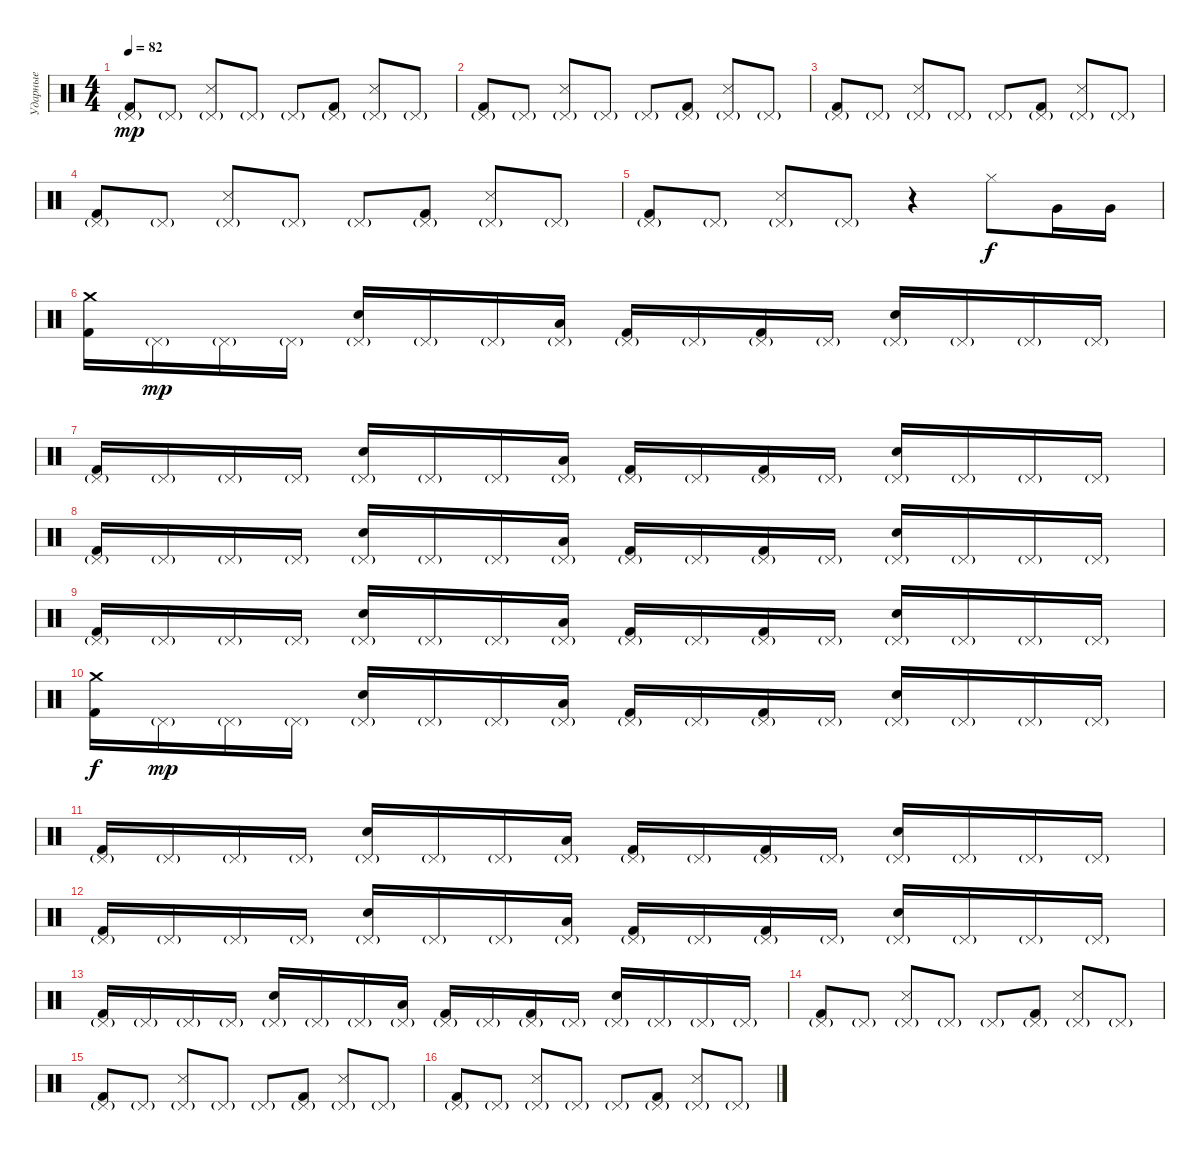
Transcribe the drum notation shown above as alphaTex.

\track ("Ударные" "Ударные") {instrument percussion}
\staff {score}
\articulation defaults
\ts (4 4)
\tempo 82
\clef neutral
\ks c
("Pedal Hi-Hat (hit)"{g} "Kick (hit) 2").8{dy mp} "Pedal Hi-Hat (hit)"{g}.8 ("Pedal Hi-Hat (hit)"{g} "Snare (side stick) 3").8 "Pedal Hi-Hat (hit)"{g}.8 "Pedal Hi-Hat (hit)"{g}.8 ("Pedal Hi-Hat (hit)"{g} "Kick (hit) 2").8 ("Pedal Hi-Hat (hit)"{g} "Snare (side stick) 3").8 "Pedal Hi-Hat (hit)"{g}.8 |
("Pedal Hi-Hat (hit)"{g} "Kick (hit) 2").8 "Pedal Hi-Hat (hit)"{g}.8 ("Pedal Hi-Hat (hit)"{g} "Snare (side stick) 3").8 "Pedal Hi-Hat (hit)"{g}.8 "Pedal Hi-Hat (hit)"{g}.8 ("Pedal Hi-Hat (hit)"{g} "Kick (hit) 2").8 ("Pedal Hi-Hat (hit)"{g} "Snare (side stick) 3").8 "Pedal Hi-Hat (hit)"{g}.8 |
("Pedal Hi-Hat (hit)"{g} "Kick (hit) 2").8 "Pedal Hi-Hat (hit)"{g}.8 ("Pedal Hi-Hat (hit)"{g} "Snare (side stick) 3").8 "Pedal Hi-Hat (hit)"{g}.8 "Pedal Hi-Hat (hit)"{g}.8 ("Pedal Hi-Hat (hit)"{g} "Kick (hit) 2").8 ("Pedal Hi-Hat (hit)"{g} "Snare (side stick) 3").8 "Pedal Hi-Hat (hit)"{g}.8 |
("Pedal Hi-Hat (hit)"{g} "Kick (hit) 2").8 "Pedal Hi-Hat (hit)"{g}.8 ("Pedal Hi-Hat (hit)"{g} "Snare (side stick) 3").8 "Pedal Hi-Hat (hit)"{g}.8 "Pedal Hi-Hat (hit)"{g}.8 ("Pedal Hi-Hat (hit)"{g} "Kick (hit) 2").8 ("Pedal Hi-Hat (hit)"{g} "Snare (side stick) 3").8 "Pedal Hi-Hat (hit)"{g}.8 |
("Pedal Hi-Hat (hit)"{g} "Kick (hit) 2").8 "Pedal Hi-Hat (hit)"{g}.8 ("Pedal Hi-Hat (hit)"{g} "Snare (side stick) 3").8 "Pedal Hi-Hat (hit)"{g}.8 r.4 "Hi-Hat (closed)".8{dy f} "Very Low Tom (hit)".16 "Very Low Tom (hit)".16 |
("Crash medium (hit)" "Kick (hit) 2").16 "Pedal Hi-Hat (hit)"{g}.16{dy mp} "Pedal Hi-Hat (hit)"{g}.16 "Pedal Hi-Hat (hit)"{g}.16 ("Pedal Hi-Hat (hit)"{g} "Electric Snare (hit)").16 "Pedal Hi-Hat (hit)"{g}.16 "Pedal Hi-Hat (hit)"{g}.16 ("Pedal Hi-Hat (hit)"{g} "Low Floor Tom (hit)").16 ("Pedal Hi-Hat (hit)"{g} "Kick (hit) 2").16 "Pedal Hi-Hat (hit)"{g}.16 ("Pedal Hi-Hat (hit)"{g} "Kick (hit) 2").16 "Pedal Hi-Hat (hit)"{g}.16 ("Pedal Hi-Hat (hit)"{g} "Electric Snare (hit)").16 "Pedal Hi-Hat (hit)"{g}.16 "Pedal Hi-Hat (hit)"{g}.16 "Pedal Hi-Hat (hit)"{g}.16 |
("Pedal Hi-Hat (hit)"{g} "Kick (hit) 2").16 "Pedal Hi-Hat (hit)"{g}.16 "Pedal Hi-Hat (hit)"{g}.16 "Pedal Hi-Hat (hit)"{g}.16 ("Pedal Hi-Hat (hit)"{g} "Electric Snare (hit)").16 "Pedal Hi-Hat (hit)"{g}.16 "Pedal Hi-Hat (hit)"{g}.16 ("Pedal Hi-Hat (hit)"{g} "Low Floor Tom (hit)").16 ("Pedal Hi-Hat (hit)"{g} "Kick (hit) 2").16 "Pedal Hi-Hat (hit)"{g}.16 ("Pedal Hi-Hat (hit)"{g} "Kick (hit) 2").16 "Pedal Hi-Hat (hit)"{g}.16 ("Pedal Hi-Hat (hit)"{g} "Electric Snare (hit)").16 "Pedal Hi-Hat (hit)"{g}.16 "Pedal Hi-Hat (hit)"{g}.16 "Pedal Hi-Hat (hit)"{g}.16 |
("Pedal Hi-Hat (hit)"{g} "Kick (hit) 2").16 "Pedal Hi-Hat (hit)"{g}.16 "Pedal Hi-Hat (hit)"{g}.16 "Pedal Hi-Hat (hit)"{g}.16 ("Pedal Hi-Hat (hit)"{g} "Electric Snare (hit)").16 "Pedal Hi-Hat (hit)"{g}.16 "Pedal Hi-Hat (hit)"{g}.16 ("Pedal Hi-Hat (hit)"{g} "Low Floor Tom (hit)").16 ("Pedal Hi-Hat (hit)"{g} "Kick (hit) 2").16 "Pedal Hi-Hat (hit)"{g}.16 ("Pedal Hi-Hat (hit)"{g} "Kick (hit) 2").16 "Pedal Hi-Hat (hit)"{g}.16 ("Pedal Hi-Hat (hit)"{g} "Electric Snare (hit)").16 "Pedal Hi-Hat (hit)"{g}.16 "Pedal Hi-Hat (hit)"{g}.16 "Pedal Hi-Hat (hit)"{g}.16 |
("Pedal Hi-Hat (hit)"{g} "Kick (hit) 2").16 "Pedal Hi-Hat (hit)"{g}.16 "Pedal Hi-Hat (hit)"{g}.16 "Pedal Hi-Hat (hit)"{g}.16 ("Pedal Hi-Hat (hit)"{g} "Electric Snare (hit)").16 "Pedal Hi-Hat (hit)"{g}.16 "Pedal Hi-Hat (hit)"{g}.16 ("Pedal Hi-Hat (hit)"{g} "Low Floor Tom (hit)").16 ("Pedal Hi-Hat (hit)"{g} "Kick (hit) 2").16 "Pedal Hi-Hat (hit)"{g}.16 ("Pedal Hi-Hat (hit)"{g} "Kick (hit) 2").16 "Pedal Hi-Hat (hit)"{g}.16 ("Pedal Hi-Hat (hit)"{g} "Electric Snare (hit)").16 "Pedal Hi-Hat (hit)"{g}.16 "Pedal Hi-Hat (hit)"{g}.16 "Pedal Hi-Hat (hit)"{g}.16 |
("Crash medium (hit)" "Kick (hit) 2").16{dy f} "Pedal Hi-Hat (hit)"{g}.16{dy mp} "Pedal Hi-Hat (hit)"{g}.16 "Pedal Hi-Hat (hit)"{g}.16 ("Pedal Hi-Hat (hit)"{g} "Electric Snare (hit)").16 "Pedal Hi-Hat (hit)"{g}.16 "Pedal Hi-Hat (hit)"{g}.16 ("Pedal Hi-Hat (hit)"{g} "Low Floor Tom (hit)").16 ("Pedal Hi-Hat (hit)"{g} "Kick (hit) 2").16 "Pedal Hi-Hat (hit)"{g}.16 ("Pedal Hi-Hat (hit)"{g} "Kick (hit) 2").16 "Pedal Hi-Hat (hit)"{g}.16 ("Pedal Hi-Hat (hit)"{g} "Electric Snare (hit)").16 "Pedal Hi-Hat (hit)"{g}.16 "Pedal Hi-Hat (hit)"{g}.16 "Pedal Hi-Hat (hit)"{g}.16 |
("Pedal Hi-Hat (hit)"{g} "Kick (hit) 2").16 "Pedal Hi-Hat (hit)"{g}.16 "Pedal Hi-Hat (hit)"{g}.16 "Pedal Hi-Hat (hit)"{g}.16 ("Pedal Hi-Hat (hit)"{g} "Electric Snare (hit)").16 "Pedal Hi-Hat (hit)"{g}.16 "Pedal Hi-Hat (hit)"{g}.16 ("Pedal Hi-Hat (hit)"{g} "Low Floor Tom (hit)").16 ("Pedal Hi-Hat (hit)"{g} "Kick (hit) 2").16 "Pedal Hi-Hat (hit)"{g}.16 ("Pedal Hi-Hat (hit)"{g} "Kick (hit) 2").16 "Pedal Hi-Hat (hit)"{g}.16 ("Pedal Hi-Hat (hit)"{g} "Electric Snare (hit)").16 "Pedal Hi-Hat (hit)"{g}.16 "Pedal Hi-Hat (hit)"{g}.16 "Pedal Hi-Hat (hit)"{g}.16 |
("Pedal Hi-Hat (hit)"{g} "Kick (hit) 2").16 "Pedal Hi-Hat (hit)"{g}.16 "Pedal Hi-Hat (hit)"{g}.16 "Pedal Hi-Hat (hit)"{g}.16 ("Pedal Hi-Hat (hit)"{g} "Electric Snare (hit)").16 "Pedal Hi-Hat (hit)"{g}.16 "Pedal Hi-Hat (hit)"{g}.16 ("Pedal Hi-Hat (hit)"{g} "Low Floor Tom (hit)").16 ("Pedal Hi-Hat (hit)"{g} "Kick (hit) 2").16 "Pedal Hi-Hat (hit)"{g}.16 ("Pedal Hi-Hat (hit)"{g} "Kick (hit) 2").16 "Pedal Hi-Hat (hit)"{g}.16 ("Pedal Hi-Hat (hit)"{g} "Electric Snare (hit)").16 "Pedal Hi-Hat (hit)"{g}.16 "Pedal Hi-Hat (hit)"{g}.16 "Pedal Hi-Hat (hit)"{g}.16 |
("Pedal Hi-Hat (hit)"{g} "Kick (hit) 2").16 "Pedal Hi-Hat (hit)"{g}.16 "Pedal Hi-Hat (hit)"{g}.16 "Pedal Hi-Hat (hit)"{g}.16 ("Pedal Hi-Hat (hit)"{g} "Electric Snare (hit)").16 "Pedal Hi-Hat (hit)"{g}.16 "Pedal Hi-Hat (hit)"{g}.16 ("Pedal Hi-Hat (hit)"{g} "Low Floor Tom (hit)").16 ("Pedal Hi-Hat (hit)"{g} "Kick (hit) 2").16 "Pedal Hi-Hat (hit)"{g}.16 ("Pedal Hi-Hat (hit)"{g} "Kick (hit) 2").16 "Pedal Hi-Hat (hit)"{g}.16 ("Pedal Hi-Hat (hit)"{g} "Electric Snare (hit)").16 "Pedal Hi-Hat (hit)"{g}.16 "Pedal Hi-Hat (hit)"{g}.16 "Pedal Hi-Hat (hit)"{g}.16 |
("Pedal Hi-Hat (hit)"{g} "Kick (hit) 2").8 "Pedal Hi-Hat (hit)"{g}.8 ("Pedal Hi-Hat (hit)"{g} "Snare (side stick) 3").8 "Pedal Hi-Hat (hit)"{g}.8 "Pedal Hi-Hat (hit)"{g}.8 ("Pedal Hi-Hat (hit)"{g} "Kick (hit) 2").8 ("Pedal Hi-Hat (hit)"{g} "Snare (side stick) 3").8 "Pedal Hi-Hat (hit)"{g}.8 |
("Pedal Hi-Hat (hit)"{g} "Kick (hit) 2").8 "Pedal Hi-Hat (hit)"{g}.8 ("Pedal Hi-Hat (hit)"{g} "Snare (side stick) 3").8 "Pedal Hi-Hat (hit)"{g}.8 "Pedal Hi-Hat (hit)"{g}.8 ("Pedal Hi-Hat (hit)"{g} "Kick (hit) 2").8 ("Pedal Hi-Hat (hit)"{g} "Snare (side stick) 3").8 "Pedal Hi-Hat (hit)"{g}.8 |
("Pedal Hi-Hat (hit)"{g} "Kick (hit) 2").8 "Pedal Hi-Hat (hit)"{g}.8 ("Pedal Hi-Hat (hit)"{g} "Snare (side stick) 3").8 "Pedal Hi-Hat (hit)"{g}.8 "Pedal Hi-Hat (hit)"{g}.8 ("Pedal Hi-Hat (hit)"{g} "Kick (hit) 2").8 ("Pedal Hi-Hat (hit)"{g} "Snare (side stick) 3").8 "Pedal Hi-Hat (hit)"{g}.8
